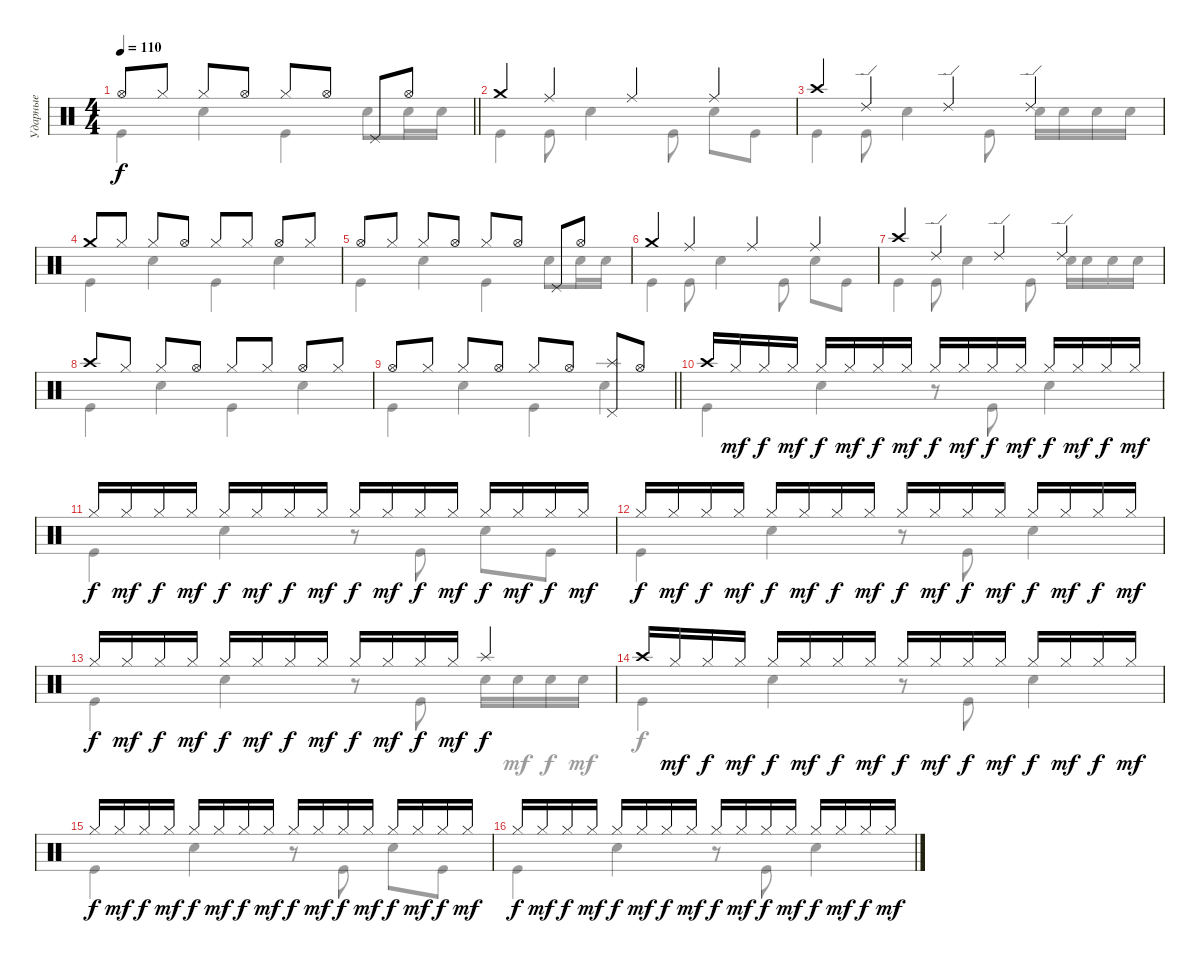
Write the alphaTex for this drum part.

\track ("Ударные" "Ударные") {instrument percussion}
\staff {score}
\articulation defaults
\voice
\ts (4 4)
\tempo 110
\clef neutral
\barLineRight lightlight
\ks c "Hi-Hat (open)".8{dy f} "Hi-Hat (closed)".8 "Hi-Hat (closed)".8 "Hi-Hat (open)".8 "Hi-Hat (closed)".8 "Hi-Hat (open)".8 "Pedal Hi-Hat (hit)".8 "Hi-Hat (open)".8
|
"Crash medium (hit)".4 "Ride (middle)".4 "Ride (middle)".4 "Ride (middle)".4 |
"Crash high (hit)".4 "Ride (edge) 2".4 "Ride (edge) 2".4 "Ride (edge) 2".4 |
"Crash medium (hit)".8 "Hi-Hat (closed)".8 "Hi-Hat (closed)".8 "Hi-Hat (open)".8 "Hi-Hat (closed)".8 "Hi-Hat (closed)".8 "Hi-Hat (open)".8 "Hi-Hat (closed)".8 |
"Hi-Hat (open)".8 "Hi-Hat (closed)".8 "Hi-Hat (closed)".8 "Hi-Hat (open)".8 "Hi-Hat (closed)".8 "Hi-Hat (open)".8 "Pedal Hi-Hat (hit)".8 "Hi-Hat (open)".8 |
"Crash medium (hit)".4 "Ride (middle)".4 "Ride (middle)".4 "Ride (middle)".4 |
"Crash high (hit)".4 "Ride (edge) 2".4 "Ride (edge) 2".4 "Ride (edge) 2".4 |
"Crash high (hit)".8 "Hi-Hat (closed)".8 "Hi-Hat (closed)".8 "Hi-Hat (open)".8 "Hi-Hat (closed)".8 "Hi-Hat (closed)".8 "Hi-Hat (open)".8 "Hi-Hat (closed)".8 |
\barLineRight lightlight "Hi-Hat (open)".8 "Hi-Hat (closed)".8 "Hi-Hat (closed)".8 "Hi-Hat (open)".8 "Hi-Hat (closed)".8 "Hi-Hat (open)".8
("Pedal Hi-Hat (hit)" "Splash (hit)").8 "Hi-Hat (open)".8 |
"Crash high (hit)".16 "Hi-Hat (closed)".16{dy mf} "Hi-Hat (closed)".16{dy f} "Hi-Hat (closed)".16{dy mf} "Hi-Hat (closed)".16{dy f} "Hi-Hat (closed)".16{dy mf} "Hi-Hat (closed)".16{dy f} "Hi-Hat (closed)".16{dy mf} "Hi-Hat (closed)".16{dy f} "Hi-Hat (closed)".16{dy mf} "Hi-Hat (closed)".16{dy f} "Hi-Hat (closed)".16{dy mf} "Hi-Hat (closed)".16{dy f} "Hi-Hat (closed)".16{dy mf} "Hi-Hat (closed)".16{dy f} "Hi-Hat (closed)".16{dy mf} |
"Hi-Hat (closed)".16{dy f} "Hi-Hat (closed)".16{dy mf} "Hi-Hat (closed)".16{dy f} "Hi-Hat (closed)".16{dy mf} "Hi-Hat (closed)".16{dy f} "Hi-Hat (closed)".16{dy mf} "Hi-Hat (closed)".16{dy f} "Hi-Hat (closed)".16{dy mf} "Hi-Hat (closed)".16{dy f} "Hi-Hat (closed)".16{dy mf} "Hi-Hat (closed)".16{dy f} "Hi-Hat (closed)".16{dy mf} "Hi-Hat (closed)".16{dy f} "Hi-Hat (closed)".16{dy mf} "Hi-Hat (closed)".16{dy f} "Hi-Hat (closed)".16{dy mf} |
"Hi-Hat (closed)".16{dy f} "Hi-Hat (closed)".16{dy mf} "Hi-Hat (closed)".16{dy f} "Hi-Hat (closed)".16{dy mf} "Hi-Hat (closed)".16{dy f} "Hi-Hat (closed)".16{dy mf} "Hi-Hat (closed)".16{dy f} "Hi-Hat (closed)".16{dy mf} "Hi-Hat (closed)".16{dy f} "Hi-Hat (closed)".16{dy mf} "Hi-Hat (closed)".16{dy f} "Hi-Hat (closed)".16{dy mf} "Hi-Hat (closed)".16{dy f} "Hi-Hat (closed)".16{dy mf} "Hi-Hat (closed)".16{dy f} "Hi-Hat (closed)".16{dy mf} |
"Hi-Hat (closed)".16{dy f} "Hi-Hat (closed)".16{dy mf} "Hi-Hat (closed)".16{dy f} "Hi-Hat (closed)".16{dy mf} "Hi-Hat (closed)".16{dy f} "Hi-Hat (closed)".16{dy mf} "Hi-Hat (closed)".16{dy f} "Hi-Hat (closed)".16{dy mf} "Hi-Hat (closed)".16{dy f} "Hi-Hat (closed)".16{dy mf} "Hi-Hat (closed)".16{dy f} "Hi-Hat (closed)".16{dy mf} "Splash (hit)".4{dy f} |
"Crash high (hit)".16 "Hi-Hat (closed)".16{dy mf} "Hi-Hat (closed)".16{dy f} "Hi-Hat (closed)".16{dy mf} "Hi-Hat (closed)".16{dy f} "Hi-Hat (closed)".16{dy mf} "Hi-Hat (closed)".16{dy f} "Hi-Hat (closed)".16{dy mf} "Hi-Hat (closed)".16{dy f} "Hi-Hat (closed)".16{dy mf} "Hi-Hat (closed)".16{dy f} "Hi-Hat (closed)".16{dy mf} "Hi-Hat (closed)".16{dy f} "Hi-Hat (closed)".16{dy mf} "Hi-Hat (closed)".16{dy f} "Hi-Hat (closed)".16{dy mf} |
"Hi-Hat (closed)".16{dy f} "Hi-Hat (closed)".16{dy mf} "Hi-Hat (closed)".16{dy f} "Hi-Hat (closed)".16{dy mf} "Hi-Hat (closed)".16{dy f} "Hi-Hat (closed)".16{dy mf} "Hi-Hat (closed)".16{dy f} "Hi-Hat (closed)".16{dy mf} "Hi-Hat (closed)".16{dy f} "Hi-Hat (closed)".16{dy mf} "Hi-Hat (closed)".16{dy f} "Hi-Hat (closed)".16{dy mf} "Hi-Hat (closed)".16{dy f} "Hi-Hat (closed)".16{dy mf} "Hi-Hat (closed)".16{dy f} "Hi-Hat (closed)".16{dy mf} |
"Hi-Hat (closed)".16{dy f} "Hi-Hat (closed)".16{dy mf} "Hi-Hat (closed)".16{dy f} "Hi-Hat (closed)".16{dy mf} "Hi-Hat (closed)".16{dy f} "Hi-Hat (closed)".16{dy mf} "Hi-Hat (closed)".16{dy f} "Hi-Hat (closed)".16{dy mf} "Hi-Hat (closed)".16{dy f} "Hi-Hat (closed)".16{dy mf} "Hi-Hat (closed)".16{dy f} "Hi-Hat (closed)".16{dy mf} "Hi-Hat (closed)".16{dy f} "Hi-Hat (closed)".16{dy mf} "Hi-Hat (closed)".16{dy f} "Hi-Hat (closed)".16{dy mf}
\voice
\clef neutral
\ottava regular
\simile none
\barLineRight lightlight
\ks c "Kick (hit)".4{dy f} "Snare (hit) 2".4 "Kick (hit)".4 "Snare (hit) 2".8 "Snare (hit) 2".16 "Snare (hit) 2".16
|
"Kick (hit)".4 "Kick (hit)".8 "Snare (hit) 2".4 "Kick (hit)".8 "Snare (hit) 2".8 "Kick (hit)".8 |
"Kick (hit)".4 "Kick (hit)".8 "Snare (hit) 2".4 "Kick (hit)".8 "Snare (hit) 2".16 "Snare (hit) 2".16 "Snare (hit) 2".16 "Snare (hit) 2".16 |
"Kick (hit)".4 "Snare (hit) 2".4 "Kick (hit)".4 "Snare (hit) 2".4 |
"Kick (hit)".4 "Snare (hit) 2".4 "Kick (hit)".4 "Snare (hit) 2".8 "Snare (hit) 2".16 "Snare (hit) 2".16 |
"Kick (hit)".4 "Kick (hit)".8 "Snare (hit) 2".4 "Kick (hit)".8 "Snare (hit) 2".8 "Kick (hit)".8 |
"Kick (hit)".4 "Kick (hit)".8 "Snare (hit) 2".4 "Kick (hit)".8 "Snare (hit) 2".16 "Snare (hit) 2".16 "Snare (hit) 2".16 "Snare (hit) 2".16 |
"Kick (hit)".4 "Snare (hit) 2".4 "Kick (hit)".4 "Snare (hit) 2".4 |
\barLineRight lightlight "Kick (hit)".4 "Snare (hit) 2".4 "Kick (hit)".4 "Snare (hit) 2".4
|
"Kick (hit)".4 "Snare (hit) 2".4 r.8 "Kick (hit)".8 "Snare (hit) 2".4 |
"Kick (hit)".4 "Snare (hit) 2".4 r.8 "Kick (hit)".8 "Snare (hit) 2".8 "Kick (hit)".8 |
"Kick (hit)".4 "Snare (hit) 2".4 r.8 "Kick (hit)".8 "Snare (hit) 2".4 |
"Kick (hit)".4 "Snare (hit) 2".4 r.8 "Kick (hit)".8 "Snare (hit) 2".16 "Snare (hit) 2".16{dy mf} "Snare (hit) 2".16{dy f} "Snare (hit) 2".16{dy mf} |
"Kick (hit)".4{dy f} "Snare (hit) 2".4 r.8 "Kick (hit)".8 "Snare (hit) 2".4 |
"Kick (hit)".4 "Snare (hit) 2".4 r.8 "Kick (hit)".8 "Snare (hit) 2".8 "Kick (hit)".8 |
"Kick (hit)".4 "Snare (hit) 2".4 r.8 "Kick (hit)".8 "Snare (hit) 2".4
